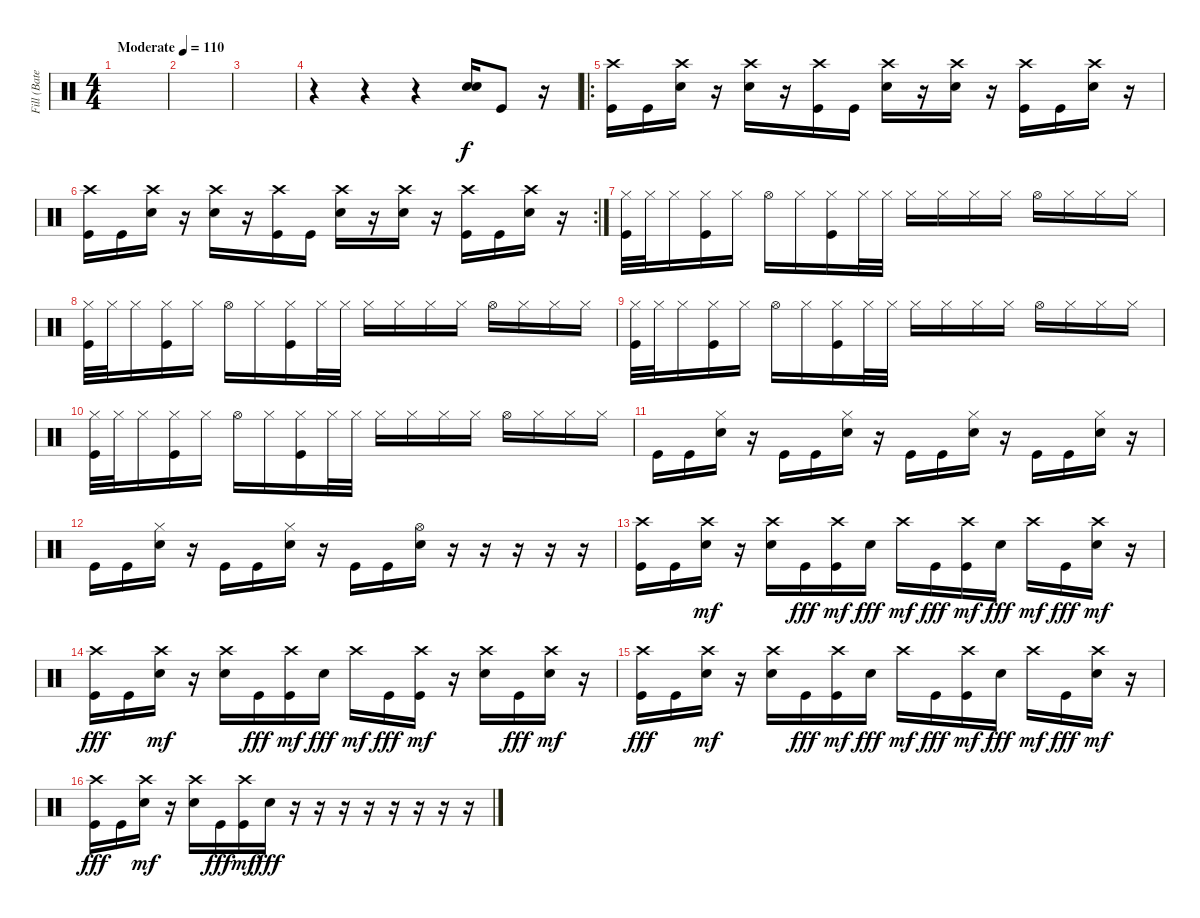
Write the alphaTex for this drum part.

\track ("Fill (Bateria)" "Fill (Bate") {instrument percussion}
\staff {score}
\articulation defaults
\ts (4 4)
\tempo (110 "Moderate")
\clef neutral
\ks c
|
|
|
r.4 r.4 r.4 ("Electric Snare (hit)" "Electric Snare (hit)").16 "Kick (hit)".8 r.16 |
\ro
("Kick (hit)" "Crash high (hit)").16 "Kick (hit)".16 ("Electric Snare (hit)" "Crash high (hit)").16 r.16 ("Electric Snare (hit)" "Crash high (hit)").16 r.16 ("Kick (hit)" "Crash high (hit)").16 "Kick (hit)".16 ("Electric Snare (hit)" "Crash high (hit)").16 r.16 ("Electric Snare (hit)" "Crash high (hit)").16 r.16 ("Kick (hit)" "Crash high (hit)").16 "Kick (hit)".16 ("Electric Snare (hit)" "Crash high (hit)").16 r.16 |
\rc 2
("Kick (hit)" "Crash high (hit)").16 "Kick (hit)".16 ("Electric Snare (hit)" "Crash high (hit)").16 r.16 ("Electric Snare (hit)" "Crash high (hit)").16 r.16 ("Kick (hit)" "Crash high (hit)").16 "Kick (hit)".16 ("Electric Snare (hit)" "Crash high (hit)").16 r.16 ("Electric Snare (hit)" "Crash high (hit)").16 r.16 ("Kick (hit)" "Crash high (hit)").16 "Kick (hit)".16 ("Electric Snare (hit)" "Crash high (hit)").16 r.16 |
("Hi-Hat (closed)" "Kick (hit)").32 "Hi-Hat (closed)".32 "Hi-Hat (closed)".16 ("Hi-Hat (closed)" "Kick (hit)").16 "Hi-Hat (closed)".16 "Hi-Hat (open)".16 "Hi-Hat (closed)".16 ("Hi-Hat (closed)" "Kick (hit)").16 "Hi-Hat (closed)".32 "Hi-Hat (closed)".32 "Hi-Hat (closed)".16 "Hi-Hat (closed)".16 "Hi-Hat (closed)".16 "Hi-Hat (closed)".16 "Hi-Hat (open)".16 "Hi-Hat (closed)".16 "Hi-Hat (closed)".16 "Hi-Hat (closed)".16 |
("Hi-Hat (closed)" "Kick (hit)").32 "Hi-Hat (closed)".32 "Hi-Hat (closed)".16 ("Hi-Hat (closed)" "Kick (hit)").16 "Hi-Hat (closed)".16 "Hi-Hat (open)".16 "Hi-Hat (closed)".16 ("Hi-Hat (closed)" "Kick (hit)").16 "Hi-Hat (closed)".32 "Hi-Hat (closed)".32 "Hi-Hat (closed)".16 "Hi-Hat (closed)".16 "Hi-Hat (closed)".16 "Hi-Hat (closed)".16 "Hi-Hat (open)".16 "Hi-Hat (closed)".16 "Hi-Hat (closed)".16 "Hi-Hat (closed)".16 |
("Hi-Hat (closed)" "Kick (hit)").32 "Hi-Hat (closed)".32 "Hi-Hat (closed)".16 ("Hi-Hat (closed)" "Kick (hit)").16 "Hi-Hat (closed)".16 "Hi-Hat (open)".16 "Hi-Hat (closed)".16 ("Hi-Hat (closed)" "Kick (hit)").16 "Hi-Hat (closed)".32 "Hi-Hat (closed)".32 "Hi-Hat (closed)".16 "Hi-Hat (closed)".16 "Hi-Hat (closed)".16 "Hi-Hat (closed)".16 "Hi-Hat (open)".16 "Hi-Hat (closed)".16 "Hi-Hat (closed)".16 "Hi-Hat (closed)".16 |
("Hi-Hat (closed)" "Kick (hit)").32 "Hi-Hat (closed)".32 "Hi-Hat (closed)".16 ("Hi-Hat (closed)" "Kick (hit)").16 "Hi-Hat (closed)".16 "Hi-Hat (open)".16 "Hi-Hat (closed)".16 ("Hi-Hat (closed)" "Kick (hit)").16 "Hi-Hat (closed)".32 "Hi-Hat (closed)".32 "Hi-Hat (closed)".16 "Hi-Hat (closed)".16 "Hi-Hat (closed)".16 "Hi-Hat (closed)".16 "Hi-Hat (open)".16 "Hi-Hat (closed)".16 "Hi-Hat (closed)".16 "Hi-Hat (closed)".16 |
"Kick (hit)".16 "Kick (hit)".16 ("Electric Snare (hit)" "Hi-Hat (closed)").16 r.16 "Kick (hit)".16 "Kick (hit)".16 ("Electric Snare (hit)" "Hi-Hat (closed)").16 r.16 "Kick (hit)".16 "Kick (hit)".16 ("Electric Snare (hit)" "Hi-Hat (closed)").16 r.16 "Kick (hit)".16 "Kick (hit)".16 ("Electric Snare (hit)" "Hi-Hat (closed)").16 r.16 |
"Kick (hit)".16 "Kick (hit)".16 ("Electric Snare (hit)" "Hi-Hat (closed)").16 r.16 "Kick (hit)".16 "Kick (hit)".16 ("Electric Snare (hit)" "Hi-Hat (closed)").16 r.16 "Kick (hit)".16 "Kick (hit)".16 ("Electric Snare (hit)" "Hi-Hat (open)").16 r.16 r.16 r.16 r.16 r.16 |
("Kick (hit)" "Crash high (hit)").16 "Kick (hit)".16 ("Electric Snare (hit)" "Crash high (hit)").16{dy mf} r.16 ("Electric Snare (hit)" "Crash high (hit)").16 "Kick (hit)".16{dy fff} ("Kick (hit)" "Crash high (hit)").16{dy mf} "Electric Snare (hit)".16{dy fff} "Crash high (hit)".16{dy mf} "Kick (hit)".16{dy fff} ("Kick (hit)" "Crash high (hit)").16{dy mf} "Electric Snare (hit)".16{dy fff} "Crash high (hit)".16{dy mf} "Kick (hit)".16{dy fff} ("Electric Snare (hit)" "Crash high (hit)").16{dy mf} r.16 |
("Kick (hit)" "Crash high (hit)").16{dy fff} "Kick (hit)".16 ("Electric Snare (hit)" "Crash high (hit)").16{dy mf} r.16 ("Electric Snare (hit)" "Crash high (hit)").16 "Kick (hit)".16{dy fff} ("Kick (hit)" "Crash high (hit)").16{dy mf} "Electric Snare (hit)".16{dy fff} "Crash high (hit)".16{dy mf} "Kick (hit)".16{dy fff} ("Kick (hit)" "Crash high (hit)").16{dy mf} r.16 ("Electric Snare (hit)" "Crash high (hit)").16 "Kick (hit)".16{dy fff} ("Electric Snare (hit)" "Crash high (hit)").16{dy mf} r.16 |
("Kick (hit)" "Crash high (hit)").16{dy fff} "Kick (hit)".16 ("Electric Snare (hit)" "Crash high (hit)").16{dy mf} r.16 ("Electric Snare (hit)" "Crash high (hit)").16 "Kick (hit)".16{dy fff} ("Kick (hit)" "Crash high (hit)").16{dy mf} "Electric Snare (hit)".16{dy fff} "Crash high (hit)".16{dy mf} "Kick (hit)".16{dy fff} ("Kick (hit)" "Crash high (hit)").16{dy mf} "Electric Snare (hit)".16{dy fff} "Crash high (hit)".16{dy mf} "Kick (hit)".16{dy fff} ("Electric Snare (hit)" "Crash high (hit)").16{dy mf} r.16 |
("Kick (hit)" "Crash high (hit)").16{dy fff} "Kick (hit)".16 ("Electric Snare (hit)" "Crash high (hit)").16{dy mf} r.16 ("Electric Snare (hit)" "Crash high (hit)").16 "Kick (hit)".16{dy fff} ("Kick (hit)" "Crash high (hit)").16{dy mf} "Electric Snare (hit)".16{dy fff} r.16 r.16 r.16 r.16 r.16 r.16 r.16 r.16
